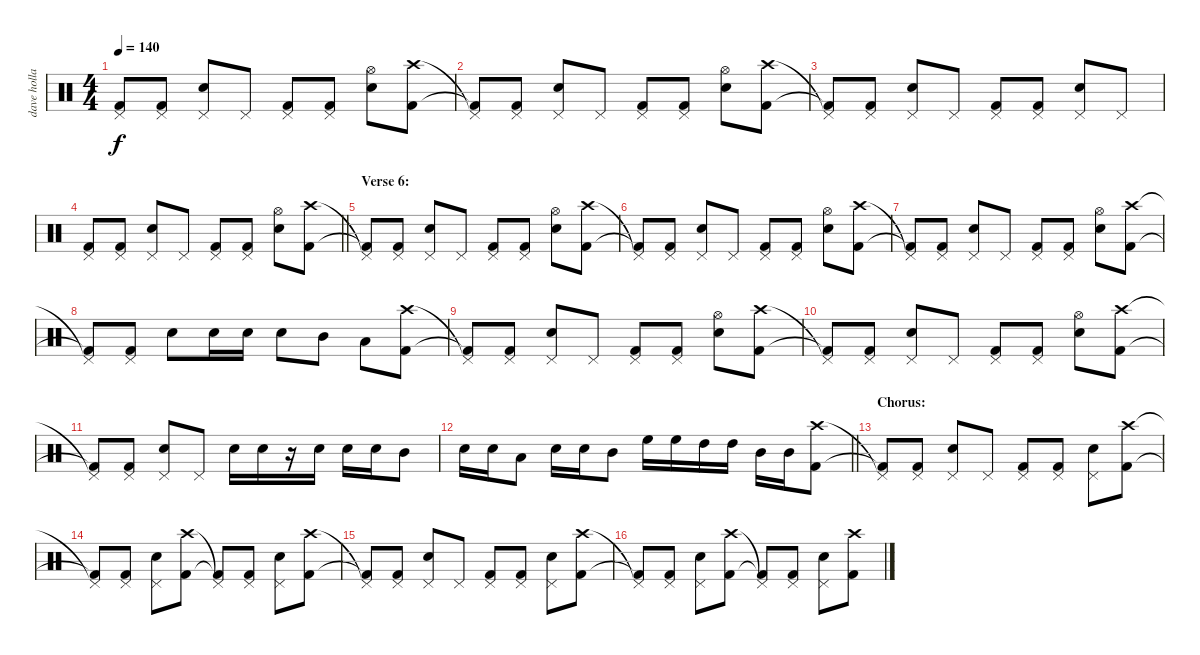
\track ("dave holland" "dave holla") {instrument percussion}
\staff {score}
\articulation defaults
\ts (4 4)
\tempo 140
\clef neutral
\ks c
("Pedal Hi-Hat (hit)"{t} "Kick (hit) 2"{t}).8{dy f} ("Pedal Hi-Hat (hit)" "Kick (hit) 2").8 ("Pedal Hi-Hat (hit)" "Snare (hit) 2").8 "Pedal Hi-Hat (hit)".8 ("Pedal Hi-Hat (hit)" "Kick (hit) 2").8 ("Pedal Hi-Hat (hit)" "Kick (hit) 2").8 ("Hi-Hat (open)" "Snare (hit) 2").8 ("Crash high (hit)" "Kick (hit) 2").8 |
("Pedal Hi-Hat (hit)"{t} "Kick (hit) 2"{t}).8 ("Pedal Hi-Hat (hit)" "Kick (hit) 2").8 ("Pedal Hi-Hat (hit)" "Snare (hit) 2").8 "Pedal Hi-Hat (hit)".8 ("Pedal Hi-Hat (hit)" "Kick (hit) 2").8 ("Pedal Hi-Hat (hit)" "Kick (hit) 2").8 ("Hi-Hat (open)" "Snare (hit) 2").8 ("Crash high (hit)" "Kick (hit) 2").8 |
("Pedal Hi-Hat (hit)"{t} "Kick (hit) 2"{t}).8 ("Pedal Hi-Hat (hit)" "Kick (hit) 2").8 ("Pedal Hi-Hat (hit)" "Snare (hit) 2").8 "Pedal Hi-Hat (hit)".8 ("Pedal Hi-Hat (hit)" "Kick (hit) 2").8 ("Pedal Hi-Hat (hit)" "Kick (hit) 2").8 ("Pedal Hi-Hat (hit)" "Snare (hit) 2").8 "Pedal Hi-Hat (hit)".8 |
\barLineRight lightlight
("Pedal Hi-Hat (hit)" "Kick (hit) 2").8 ("Pedal Hi-Hat (hit)" "Kick (hit) 2").8 ("Pedal Hi-Hat (hit)" "Snare (hit) 2").8 "Pedal Hi-Hat (hit)".8 ("Pedal Hi-Hat (hit)" "Kick (hit) 2").8 ("Pedal Hi-Hat (hit)" "Kick (hit) 2").8 ("Hi-Hat (open)" "Snare (hit) 2").8 ("Crash high (hit)" "Kick (hit) 2").8 |
\section ("" "Verse 6:")
("Pedal Hi-Hat (hit)"{t} "Kick (hit) 2"{t}).8 ("Pedal Hi-Hat (hit)" "Kick (hit) 2").8 ("Pedal Hi-Hat (hit)" "Snare (hit) 2").8 "Pedal Hi-Hat (hit)".8 ("Pedal Hi-Hat (hit)" "Kick (hit) 2").8 ("Pedal Hi-Hat (hit)" "Kick (hit) 2").8 ("Hi-Hat (open)" "Snare (hit) 2").8 ("Crash high (hit)" "Kick (hit) 2").8 |
("Pedal Hi-Hat (hit)"{t} "Kick (hit) 2"{t}).8 ("Pedal Hi-Hat (hit)" "Kick (hit) 2").8 ("Pedal Hi-Hat (hit)" "Snare (hit) 2").8 "Pedal Hi-Hat (hit)".8 ("Pedal Hi-Hat (hit)" "Kick (hit) 2").8 ("Pedal Hi-Hat (hit)" "Kick (hit) 2").8 ("Hi-Hat (open)" "Snare (hit) 2").8 ("Crash high (hit)" "Kick (hit) 2").8 |
("Pedal Hi-Hat (hit)"{t} "Kick (hit) 2"{t}).8 ("Pedal Hi-Hat (hit)" "Kick (hit) 2").8 ("Pedal Hi-Hat (hit)" "Snare (hit) 2").8 "Pedal Hi-Hat (hit)".8 ("Pedal Hi-Hat (hit)" "Kick (hit) 2").8 ("Pedal Hi-Hat (hit)" "Kick (hit) 2").8 ("Hi-Hat (open)" "Snare (hit) 2").8 ("Crash high (hit)" "Kick (hit) 2").8 |
("Pedal Hi-Hat (hit)"{t} "Kick (hit) 2"{t}).8 ("Pedal Hi-Hat (hit)" "Kick (hit) 2").8 "Snare (hit) 2".8 "Snare (hit) 2".16 "Snare (hit) 2".16 "Snare (hit) 2".8 "Mid Tom (hit)".8 "Low Tom (hit)".8 ("Crash high (hit)" "Kick (hit) 2").8 |
("Pedal Hi-Hat (hit)"{t} "Kick (hit) 2"{t}).8 ("Pedal Hi-Hat (hit)" "Kick (hit) 2").8 ("Pedal Hi-Hat (hit)" "Snare (hit) 2").8 "Pedal Hi-Hat (hit)".8 ("Pedal Hi-Hat (hit)" "Kick (hit) 2").8 ("Pedal Hi-Hat (hit)" "Kick (hit) 2").8 ("Hi-Hat (open)" "Snare (hit) 2").8 ("Crash high (hit)" "Kick (hit) 2").8 |
("Pedal Hi-Hat (hit)"{t} "Kick (hit) 2"{t}).8 ("Pedal Hi-Hat (hit)" "Kick (hit) 2").8 ("Pedal Hi-Hat (hit)" "Snare (hit) 2").8 "Pedal Hi-Hat (hit)".8 ("Pedal Hi-Hat (hit)" "Kick (hit) 2").8 ("Pedal Hi-Hat (hit)" "Kick (hit) 2").8 ("Hi-Hat (open)" "Snare (hit) 2").8 ("Crash high (hit)" "Kick (hit) 2").8 |
("Pedal Hi-Hat (hit)"{t} "Kick (hit) 2"{t}).8 ("Pedal Hi-Hat (hit)" "Kick (hit) 2").8 ("Pedal Hi-Hat (hit)" "Snare (hit) 2").8 "Pedal Hi-Hat (hit)".8 "Snare (hit) 2".16 "Snare (hit) 2".16 r.16 "Snare (hit) 2".16 "Snare (hit) 2".16 "Snare (hit) 2".16 "Mid Tom (hit)".8 |
\barLineRight lightlight "Snare (hit) 2".16 "Snare (hit) 2".16 "Low Tom (hit)".8 "Snare (hit) 2".16 "Snare (hit) 2".16 "Mid Tom (hit)".8 "High Floor Tom (hit)".16 "High Floor Tom (hit)".16 "High Tom (hit)".16 "High Tom (hit)".16 "Mid Tom (hit)".16 "Mid Tom (hit)".16
("Crash high (hit)" "Kick (hit) 2").8 |
\section ("" "Chorus:")
("Pedal Hi-Hat (hit)"{t} "Kick (hit) 2"{t}).8 ("Pedal Hi-Hat (hit)" "Kick (hit) 2").8 ("Pedal Hi-Hat (hit)" "Snare (hit) 2").8 "Pedal Hi-Hat (hit)".8 ("Pedal Hi-Hat (hit)" "Kick (hit) 2").8 ("Pedal Hi-Hat (hit)" "Kick (hit) 2").8 ("Pedal Hi-Hat (hit)" "Snare (hit) 2").8 ("Crash high (hit)" "Kick (hit) 2").8 |
("Pedal Hi-Hat (hit)"{t} "Kick (hit) 2"{t}).8 ("Pedal Hi-Hat (hit)" "Kick (hit) 2").8 ("Pedal Hi-Hat (hit)" "Snare (hit) 2").8 ("Crash high (hit)" "Kick (hit) 2").8 ("Pedal Hi-Hat (hit)"{t} "Kick (hit) 2"{t}).8 ("Pedal Hi-Hat (hit)" "Kick (hit) 2").8 ("Pedal Hi-Hat (hit)" "Snare (hit) 2").8 ("Crash high (hit)" "Kick (hit) 2").8 |
("Pedal Hi-Hat (hit)"{t} "Kick (hit) 2"{t}).8 ("Pedal Hi-Hat (hit)" "Kick (hit) 2").8 ("Pedal Hi-Hat (hit)" "Snare (hit) 2").8 "Pedal Hi-Hat (hit)".8 ("Pedal Hi-Hat (hit)" "Kick (hit) 2").8 ("Pedal Hi-Hat (hit)" "Kick (hit) 2").8 ("Pedal Hi-Hat (hit)" "Snare (hit) 2").8 ("Crash high (hit)" "Kick (hit) 2").8 |
("Pedal Hi-Hat (hit)"{t} "Kick (hit) 2"{t}).8 ("Pedal Hi-Hat (hit)" "Kick (hit) 2").8 ("Pedal Hi-Hat (hit)" "Snare (hit) 2").8 ("Crash high (hit)" "Kick (hit) 2").8 ("Pedal Hi-Hat (hit)"{t} "Kick (hit) 2"{t}).8 ("Pedal Hi-Hat (hit)" "Kick (hit) 2").8 ("Pedal Hi-Hat (hit)" "Snare (hit) 2").8 ("Crash high (hit)" "Kick (hit) 2").8
